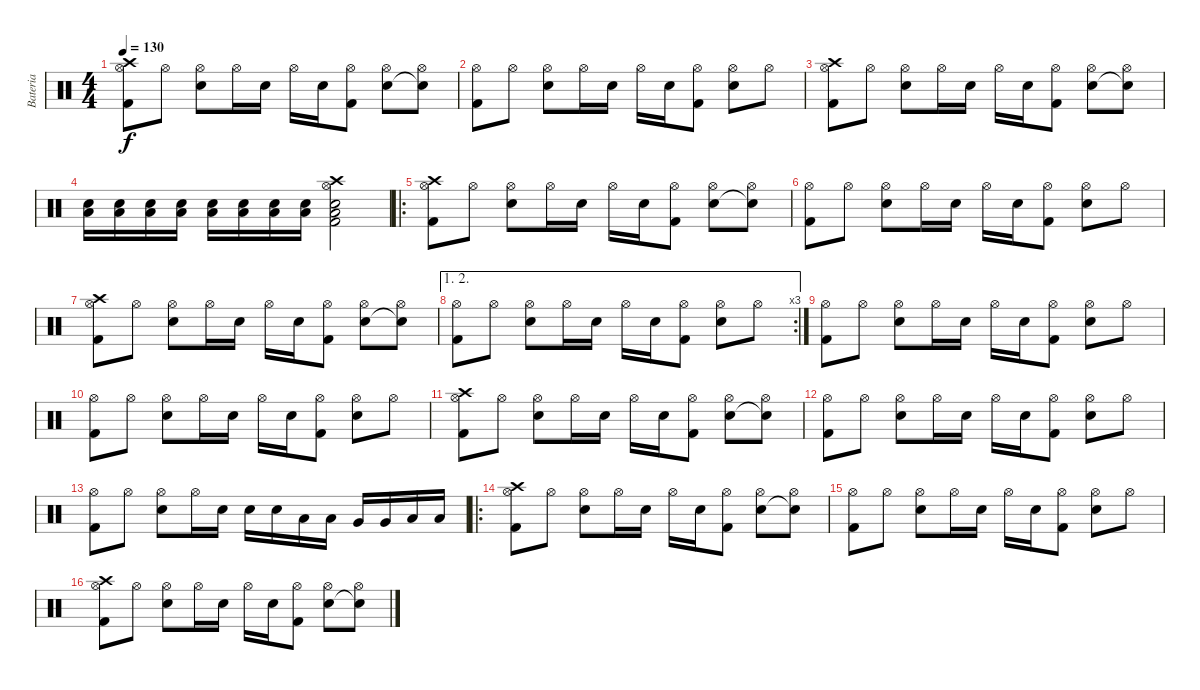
\track ("Bateria" "Bateria") {instrument percussion}
\staff {score}
\articulation defaults
\ts (4 4)
\tempo 130
\clef neutral
\ks c
("Hi-Hat (open)" "Crash high (hit)" "Kick (hit) 2").8{dy f} "Hi-Hat (open)".8 ("Hi-Hat (open)" "Snare (hit) 2").8 "Hi-Hat (open)".16 "Snare (hit) 2".16 "Hi-Hat (open)".16 "Snare (hit) 2".16 ("Hi-Hat (open)" "Kick (hit) 2").8 ("Hi-Hat (open)" "Snare (hit) 2").8 ("Hi-Hat (open)" "Snare (hit)"{t}).8 |
("Hi-Hat (open)" "Kick (hit) 2").8 "Hi-Hat (open)".8 ("Hi-Hat (open)" "Snare (hit) 2").8 "Hi-Hat (open)".16 "Snare (hit) 2".16 "Hi-Hat (open)".16 "Snare (hit) 2".16 ("Hi-Hat (open)" "Kick (hit) 2").8 ("Hi-Hat (open)" "Snare (hit) 2").8 "Hi-Hat (open)".8 |
("Hi-Hat (open)" "Crash high (hit)" "Kick (hit) 2").8 "Hi-Hat (open)".8 ("Hi-Hat (open)" "Snare (hit) 2").8 "Hi-Hat (open)".16 "Snare (hit) 2".16 "Hi-Hat (open)".16 "Snare (hit) 2".16 ("Hi-Hat (open)" "Kick (hit) 2").8 ("Hi-Hat (open)" "Snare (hit) 2").8 ("Hi-Hat (open)" "Snare (hit)"{t}).8 |
("Low Floor Tom (hit)" "Snare (hit) 2").16{volume 12} ("Low Floor Tom (hit)" "Snare (hit) 2").16 ("Low Floor Tom (hit)" "Snare (hit) 2").16{volume 13} ("Low Floor Tom (hit)" "Snare (hit) 2").16 ("Low Floor Tom (hit)" "Snare (hit) 2").16{volume 14} ("Low Floor Tom (hit)" "Snare (hit) 2").16 ("Low Floor Tom (hit)" "Snare (hit) 2").16 ("Low Floor Tom (hit)" "Snare (hit) 2").16 ("Hi-Hat (open)" "Crash high (hit)" "Low Floor Tom (hit)" "Snare (hit) 2" "Kick (hit) 2").2 |
\ro
("Hi-Hat (open)" "Crash high (hit)" "Kick (hit) 2").8 "Hi-Hat (open)".8 ("Hi-Hat (open)" "Snare (hit) 2").8 "Hi-Hat (open)".16 "Snare (hit) 2".16 "Hi-Hat (open)".16 "Snare (hit) 2".16 ("Hi-Hat (open)" "Kick (hit) 2").8 ("Hi-Hat (open)" "Snare (hit) 2").8 ("Hi-Hat (open)" "Snare (hit)"{t}).8 |
("Hi-Hat (open)" "Kick (hit) 2").8 "Hi-Hat (open)".8 ("Hi-Hat (open)" "Snare (hit) 2").8 "Hi-Hat (open)".16 "Snare (hit) 2".16 "Hi-Hat (open)".16 "Snare (hit) 2".16 ("Hi-Hat (open)" "Kick (hit) 2").8 ("Hi-Hat (open)" "Snare (hit) 2").8 "Hi-Hat (open)".8 |
("Hi-Hat (open)" "Crash high (hit)" "Kick (hit) 2").8 "Hi-Hat (open)".8 ("Hi-Hat (open)" "Snare (hit) 2").8 "Hi-Hat (open)".16 "Snare (hit) 2".16 "Hi-Hat (open)".16 "Snare (hit) 2".16 ("Hi-Hat (open)" "Kick (hit) 2").8 ("Hi-Hat (open)" "Snare (hit) 2").8 ("Hi-Hat (open)" "Snare (hit)"{t}).8 |
\ae (1 2)
\rc 3
("Hi-Hat (open)" "Kick (hit) 2").8 "Hi-Hat (open)".8 ("Hi-Hat (open)" "Snare (hit) 2").8 "Hi-Hat (open)".16 "Snare (hit) 2".16 "Hi-Hat (open)".16 "Snare (hit) 2".16 ("Hi-Hat (open)" "Kick (hit) 2").8 ("Hi-Hat (open)" "Snare (hit) 2").8 "Hi-Hat (open)".8 |
("Hi-Hat (open)" "Kick (hit) 2").8 "Hi-Hat (open)".8 ("Hi-Hat (open)" "Snare (hit) 2").8 "Hi-Hat (open)".16 "Snare (hit) 2".16 "Hi-Hat (open)".16 "Snare (hit) 2".16 ("Hi-Hat (open)" "Kick (hit) 2").8 ("Hi-Hat (open)" "Snare (hit) 2").8 "Hi-Hat (open)".8 |
("Hi-Hat (open)" "Kick (hit) 2").8 "Hi-Hat (open)".8 ("Hi-Hat (open)" "Snare (hit) 2").8 "Hi-Hat (open)".16 "Snare (hit) 2".16 "Hi-Hat (open)".16 "Snare (hit) 2".16 ("Hi-Hat (open)" "Kick (hit) 2").8 ("Hi-Hat (open)" "Snare (hit) 2").8 "Hi-Hat (open)".8 |
("Hi-Hat (open)" "Crash high (hit)" "Kick (hit) 2").8 "Hi-Hat (open)".8 ("Hi-Hat (open)" "Snare (hit) 2").8 "Hi-Hat (open)".16 "Snare (hit) 2".16 "Hi-Hat (open)".16 "Snare (hit) 2".16 ("Hi-Hat (open)" "Kick (hit) 2").8 ("Hi-Hat (open)" "Snare (hit) 2").8 ("Hi-Hat (open)" "Snare (hit)"{t}).8 |
("Hi-Hat (open)" "Kick (hit) 2").8 "Hi-Hat (open)".8 ("Hi-Hat (open)" "Snare (hit) 2").8 "Hi-Hat (open)".16 "Snare (hit) 2".16 "Hi-Hat (open)".16 "Snare (hit) 2".16 ("Hi-Hat (open)" "Kick (hit) 2").8 ("Hi-Hat (open)" "Snare (hit) 2").8 "Hi-Hat (open)".8 |
("Hi-Hat (open)" "Kick (hit) 2").8 "Hi-Hat (open)".8 ("Hi-Hat (open)" "Snare (hit) 2").8 "Hi-Hat (open)".16 "Snare (hit) 2".16 "Snare (hit) 2".16 "Snare (hit) 2".16 "Low Tom (hit)".16 "Low Tom (hit)".16 "Very Low Tom (hit)".16 "Very Low Tom (hit)".16 "Low Floor Tom (hit)".16 "Low Floor Tom (hit)".16 |
\ro
("Hi-Hat (open)" "Crash high (hit)" "Kick (hit) 2").8 "Hi-Hat (open)".8 ("Hi-Hat (open)" "Snare (hit) 2").8 "Hi-Hat (open)".16 "Snare (hit) 2".16 "Hi-Hat (open)".16 "Snare (hit) 2".16 ("Hi-Hat (open)" "Kick (hit) 2").8 ("Hi-Hat (open)" "Snare (hit) 2").8 ("Hi-Hat (open)" "Snare (hit)"{t}).8 |
("Hi-Hat (open)" "Kick (hit) 2").8 "Hi-Hat (open)".8 ("Hi-Hat (open)" "Snare (hit) 2").8 "Hi-Hat (open)".16 "Snare (hit) 2".16 "Hi-Hat (open)".16 "Snare (hit) 2".16 ("Hi-Hat (open)" "Kick (hit) 2").8 ("Hi-Hat (open)" "Snare (hit) 2").8 "Hi-Hat (open)".8 |
("Hi-Hat (open)" "Crash high (hit)" "Kick (hit) 2").8 "Hi-Hat (open)".8 ("Hi-Hat (open)" "Snare (hit) 2").8 "Hi-Hat (open)".16 "Snare (hit) 2".16 "Hi-Hat (open)".16 "Snare (hit) 2".16 ("Hi-Hat (open)" "Kick (hit) 2").8 ("Hi-Hat (open)" "Snare (hit) 2").8 ("Hi-Hat (open)" "Snare (hit)"{t}).8
